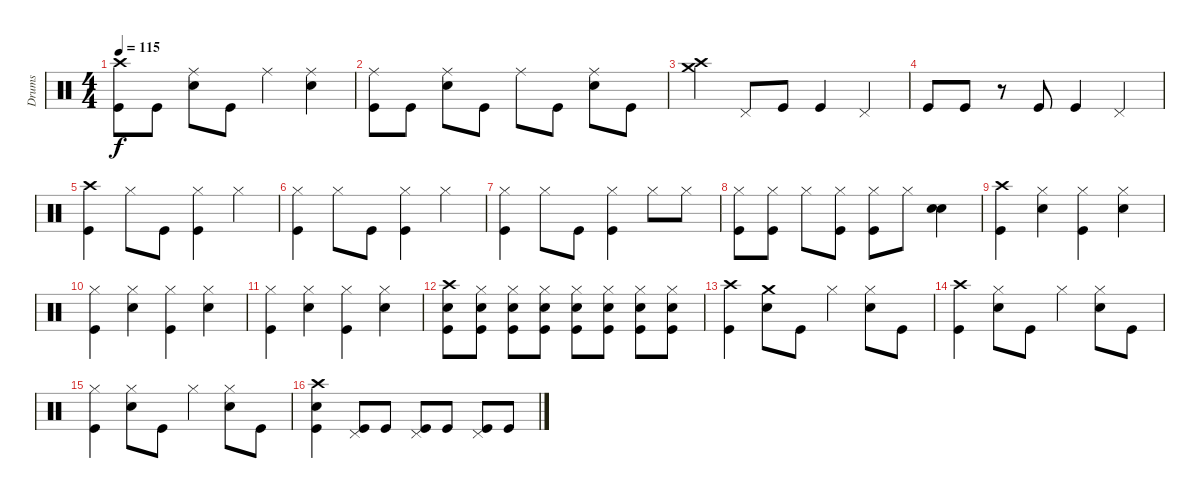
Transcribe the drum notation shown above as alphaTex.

\track ("Drums" "Drums") {instrument percussion}
\staff {score}
\articulation defaults
\ts (4 4)
\tempo 115
\clef neutral
\ks c
("Crash high (hit)" "Kick (hit)").8{dy f} "Kick (hit)".8 ("Ride (middle)" "Snare (hit) 2").8 "Kick (hit)".8 "Ride (middle)".4 ("Ride (middle)" "Snare (hit) 2").4 |
("Ride (middle)" "Kick (hit)").8 "Kick (hit)".8 ("Ride (middle)" "Snare (hit) 2").8 "Kick (hit)".8 "Ride (middle)".8 "Kick (hit)".8 ("Ride (middle)" "Snare (hit) 2").8 "Kick (hit)".8 |
("Crash high (hit)" "Crash medium (hit)").4 "Pedal Hi-Hat (hit)".8 "Kick (hit)".8 "Kick (hit)".4 "Pedal Hi-Hat (hit)".4 |
"Kick (hit)".8 "Kick (hit)".8 r.8 "Kick (hit)".8 "Kick (hit)".4 "Pedal Hi-Hat (hit)".4 |
("Crash high (hit)" "Kick (hit)").4 "Hi-Hat (closed)".8 "Kick (hit)".8 ("Hi-Hat (closed)" "Kick (hit)").4 "Hi-Hat (closed)".4 |
("Hi-Hat (closed)" "Kick (hit)").4 "Hi-Hat (closed)".8 "Kick (hit)".8 ("Hi-Hat (closed)" "Kick (hit)").4 "Hi-Hat (closed)".4 |
("Hi-Hat (closed)" "Kick (hit)").4 "Hi-Hat (closed)".8 "Kick (hit)".8 ("Hi-Hat (closed)" "Kick (hit)").4 "Hi-Hat (closed)".8 "Hi-Hat (closed)".8 |
("Hi-Hat (closed)" "Kick (hit)").8 ("Hi-Hat (closed)" "Kick (hit)").8 "Hi-Hat (closed)".8 ("Hi-Hat (closed)" "Kick (hit)").8 ("Hi-Hat (closed)" "Kick (hit)").8 "Hi-Hat (closed)".8 ("Snare (hit) 2" "Snare (hit) 2").4 |
("Crash high (hit)" "Kick (hit)").4 ("Hi-Hat (closed)" "Snare (hit) 2").4 ("Hi-Hat (closed)" "Kick (hit)").4 ("Hi-Hat (closed)" "Snare (hit) 2").4 |
("Hi-Hat (closed)" "Kick (hit)").4 ("Hi-Hat (closed)" "Snare (hit) 2").4 ("Hi-Hat (closed)" "Kick (hit)").4 ("Hi-Hat (closed)" "Snare (hit) 2").4 |
("Hi-Hat (closed)" "Kick (hit)").4 ("Hi-Hat (closed)" "Snare (hit) 2").4 ("Hi-Hat (closed)" "Kick (hit)").4 ("Hi-Hat (closed)" "Snare (hit) 2").4 |
("Crash high (hit)" "Kick (hit)" "Snare (hit) 2").8 ("Hi-Hat (closed)" "Kick (hit)" "Snare (hit) 2").8 ("Hi-Hat (closed)" "Kick (hit)" "Snare (hit) 2").8 ("Hi-Hat (closed)" "Kick (hit)" "Snare (hit) 2").8 ("Hi-Hat (closed)" "Kick (hit)" "Snare (hit) 2").8 ("Hi-Hat (closed)" "Kick (hit)" "Snare (hit) 2").8 ("Hi-Hat (closed)" "Kick (hit)" "Snare (hit) 2").8 ("Hi-Hat (closed)" "Kick (hit)" "Snare (hit) 2").8 |
("Crash high (hit)" "Kick (hit)").4 ("Crash medium (hit)" "Snare (hit) 2").8 "Kick (hit)".8 "Hi-Hat (closed)".4 ("Hi-Hat (closed)" "Snare (hit) 2").8 "Kick (hit)".8 |
("Crash high (hit)" "Kick (hit)").4 ("Hi-Hat (closed)" "Snare (hit) 2").8 "Kick (hit)".8 "Hi-Hat (closed)".4 ("Hi-Hat (closed)" "Snare (hit) 2").8 "Kick (hit)".8 |
("Hi-Hat (closed)" "Kick (hit)").4 ("Hi-Hat (closed)" "Snare (hit) 2").8 "Kick (hit)".8 "Hi-Hat (closed)".4 ("Hi-Hat (closed)" "Snare (hit) 2").8 "Kick (hit)".8 |
("Crash high (hit)" "Snare (hit) 2" "Kick (hit)").4 ("Kick (hit)" "Pedal Hi-Hat (hit)").8 "Kick (hit)".8 ("Kick (hit)" "Pedal Hi-Hat (hit)").8 "Kick (hit)".8 ("Kick (hit)" "Pedal Hi-Hat (hit)").8 "Kick (hit)".8
